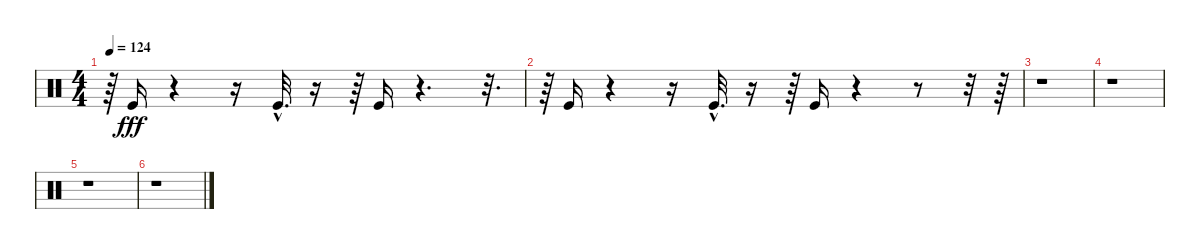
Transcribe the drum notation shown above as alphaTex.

\track "" {instrument percussion}
\staff {score}
\articulation defaults
\ts (4 4)
\tempo 124
\clef neutral
\ks c
r.64{dy fff} "Kick (hit)".16 r.4 r.16 "Kick (hit)"{hac}.32{d} r.16 r.64 "Kick (hit)".16 r.4{d} r.32{d} |
r.64 "Kick (hit)".16 r.4 r.16 "Kick (hit)"{hac}.32{d} r.16 r.64 "Kick (hit)".16 r.4 r.8 r.32 r.64 |
r.1 |
r.1 |
r.1 |
r.1
